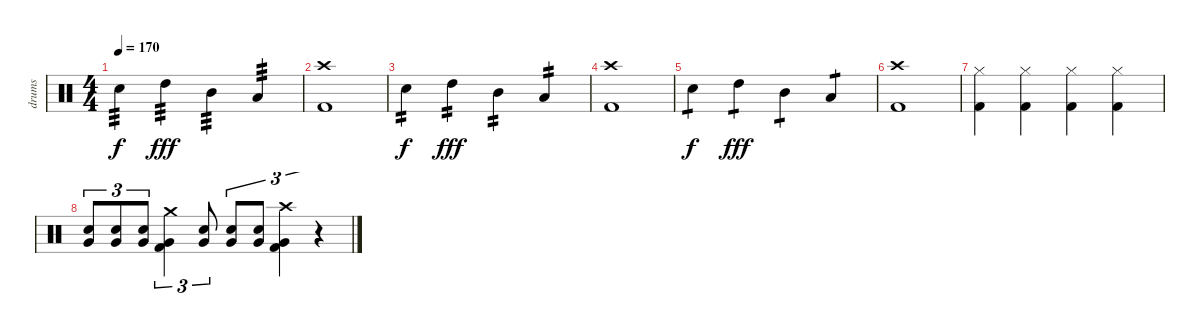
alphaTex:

\track ("drums" "drums") {instrument percussion}
\staff {score}
\articulation defaults
\ts (4 4)
\tempo 170
\clef neutral
\ks c "Snare (hit) 2".4{tp 3 dy f} "High Tom (hit)".4{tp 3 dy fff} "Mid Tom (hit)".4{tp 3} "Low Tom (hit)".4{tp 3}
|
("Crash high (hit)" "Kick (hit) 2").1 |
"Snare (hit) 2".4{tp 2 dy f} "High Tom (hit)".4{tp 2 dy fff} "Mid Tom (hit)".4{tp 2} "Low Tom (hit)".4{tp 2} |
("Crash high (hit)" "Kick (hit) 2").1 |
"Snare (hit) 2".4{tp 1 dy f} "High Tom (hit)".4{tp 1 dy fff} "Mid Tom (hit)".4{tp 1} "Low Tom (hit)".4{tp 1} |
("Crash high (hit)" "Kick (hit) 2").1 |
("Hi-Hat (closed)" "Kick (hit) 2").4 ("Hi-Hat (closed)" "Kick (hit) 2").4 ("Hi-Hat (closed)" "Kick (hit) 2").4 ("Hi-Hat (closed)" "Kick (hit) 2").4 |
("Snare (hit) 2" "Very Low Tom (hit)").8{tu (3 2)} ("Snare (hit) 2" "Very Low Tom (hit)").8{tu (3 2)} ("Snare (hit) 2" "Very Low Tom (hit)").8{tu (3 2)} ("Crash medium (hit)" "Very Low Tom (hit)" "Kick (hit) 2").4{tu (3 2)} ("Snare (hit) 2" "Very Low Tom (hit)").8{tu (3 2)} ("Snare (hit) 2" "Very Low Tom (hit)").8{tu (3 2)} ("Snare (hit) 2" "Very Low Tom (hit)").8{tu (3 2)} ("Crash high (hit)" "Very Low Tom (hit)" "Kick (hit) 2").4{tu (3 2)} r.4{tu (3 2)}
